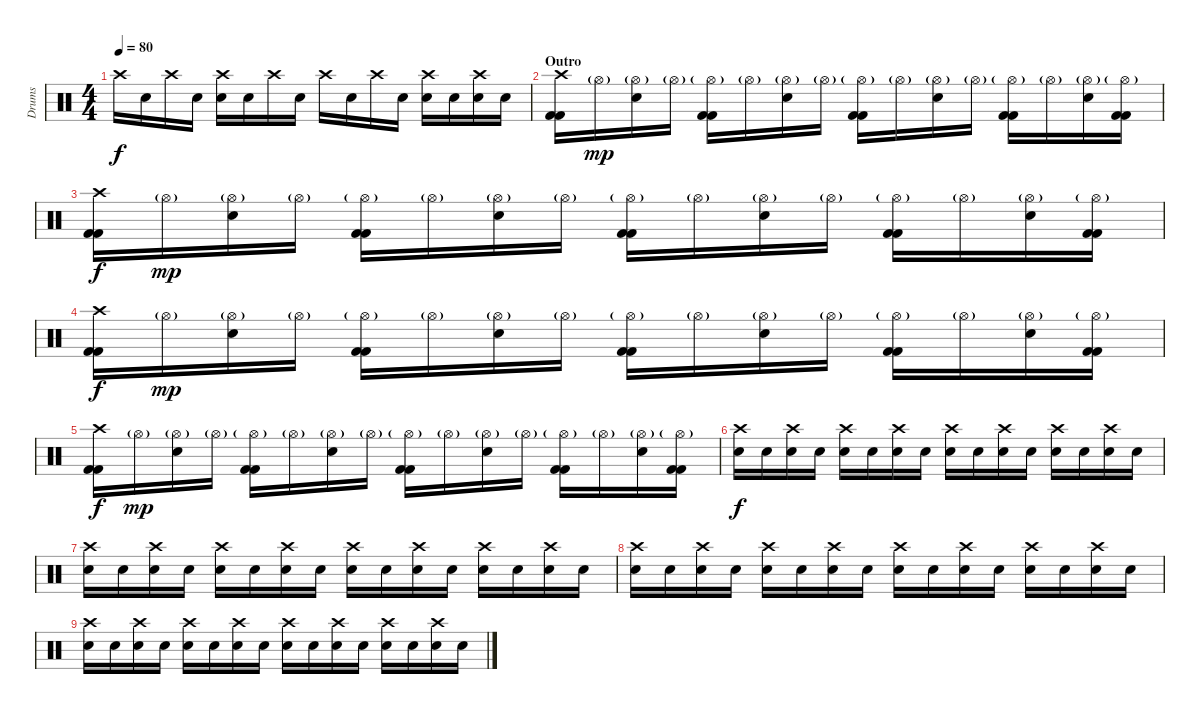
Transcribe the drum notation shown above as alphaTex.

\track ("Drums" "Drums") {instrument percussion}
\staff {score}
\articulation defaults
\ts (4 4)
\tempo 80
\clef neutral
\ks c "Crash high (hit)".16{dy f} "Snare (hit)"{x}.16 "Crash high (hit)".16 "Snare (hit)"{x}.16
("Crash high (hit)" "Electric Snare (hit)").16 "Snare (hit)"{x}.16 "Crash high (hit)".16 "Snare (hit)"{x}.16 "Crash high (hit)".16 "Snare (hit)"{x}.16 "Crash high (hit)".16 "Snare (hit)"{x}.16 ("Crash high (hit)" "Electric Snare (hit)").16 "Snare (hit)"{x}.16 ("Crash high (hit)" "Electric Snare (hit)").16 "Snare (hit)"{x}.16 |
\section ("" "Outro")
("Crash high (hit)" "Kick (hit) 2" "Kick (hit) 2").16 "Hi-Hat (open)"{g}.16{dy mp} ("Hi-Hat (open)"{g} "Electric Snare (hit)").16 "Hi-Hat (open)"{g}.16 ("Hi-Hat (open)"{g} "Kick (hit) 2" "Kick (hit) 2").16 "Hi-Hat (open)"{g}.16 ("Hi-Hat (open)"{g} "Electric Snare (hit)").16 "Hi-Hat (open)"{g}.16 ("Hi-Hat (open)"{g} "Kick (hit) 2" "Kick (hit) 2").16 "Hi-Hat (open)"{g}.16 ("Hi-Hat (open)"{g} "Electric Snare (hit)").16 "Hi-Hat (open)"{g}.16 ("Hi-Hat (open)"{g} "Kick (hit) 2" "Kick (hit) 2").16 "Hi-Hat (open)"{g}.16 ("Hi-Hat (open)"{g} "Electric Snare (hit)").16 ("Hi-Hat (open)"{g} "Kick (hit) 2" "Kick (hit) 2").16 |
("Crash high (hit)" "Kick (hit) 2" "Kick (hit) 2").16{dy f} "Hi-Hat (open)"{g}.16{dy mp} ("Hi-Hat (open)"{g} "Electric Snare (hit)").16 "Hi-Hat (open)"{g}.16 ("Hi-Hat (open)"{g} "Kick (hit) 2" "Kick (hit) 2").16 "Hi-Hat (open)"{g}.16 ("Hi-Hat (open)"{g} "Electric Snare (hit)").16 "Hi-Hat (open)"{g}.16 ("Hi-Hat (open)"{g} "Kick (hit) 2" "Kick (hit) 2").16 "Hi-Hat (open)"{g}.16 ("Hi-Hat (open)"{g} "Electric Snare (hit)").16 "Hi-Hat (open)"{g}.16 ("Hi-Hat (open)"{g} "Kick (hit) 2" "Kick (hit) 2").16 "Hi-Hat (open)"{g}.16 ("Hi-Hat (open)"{g} "Electric Snare (hit)").16 ("Hi-Hat (open)"{g} "Kick (hit) 2" "Kick (hit) 2").16 |
("Crash high (hit)" "Kick (hit) 2" "Kick (hit) 2").16{dy f} "Hi-Hat (open)"{g}.16{dy mp} ("Hi-Hat (open)"{g} "Electric Snare (hit)").16 "Hi-Hat (open)"{g}.16 ("Hi-Hat (open)"{g} "Kick (hit) 2" "Kick (hit) 2").16 "Hi-Hat (open)"{g}.16 ("Hi-Hat (open)"{g} "Electric Snare (hit)").16 "Hi-Hat (open)"{g}.16 ("Hi-Hat (open)"{g} "Kick (hit) 2" "Kick (hit) 2").16 "Hi-Hat (open)"{g}.16 ("Hi-Hat (open)"{g} "Electric Snare (hit)").16 "Hi-Hat (open)"{g}.16 ("Hi-Hat (open)"{g} "Kick (hit) 2" "Kick (hit) 2").16 "Hi-Hat (open)"{g}.16 ("Hi-Hat (open)"{g} "Electric Snare (hit)").16 ("Hi-Hat (open)"{g} "Kick (hit) 2" "Kick (hit) 2").16 |
("Crash high (hit)" "Kick (hit) 2" "Kick (hit) 2").16{dy f} "Hi-Hat (open)"{g}.16{dy mp} ("Hi-Hat (open)"{g} "Electric Snare (hit)").16 "Hi-Hat (open)"{g}.16 ("Hi-Hat (open)"{g} "Kick (hit) 2" "Kick (hit) 2").16 "Hi-Hat (open)"{g}.16 ("Hi-Hat (open)"{g} "Electric Snare (hit)").16 "Hi-Hat (open)"{g}.16 ("Hi-Hat (open)"{g} "Kick (hit) 2" "Kick (hit) 2").16 "Hi-Hat (open)"{g}.16 ("Hi-Hat (open)"{g} "Electric Snare (hit)").16 "Hi-Hat (open)"{g}.16 ("Hi-Hat (open)"{g} "Kick (hit) 2" "Kick (hit) 2").16 "Hi-Hat (open)"{g}.16 ("Hi-Hat (open)"{g} "Electric Snare (hit)").16 ("Hi-Hat (open)"{g} "Kick (hit) 2" "Kick (hit) 2").16 |
("Crash high (hit)" "Electric Snare (hit)").16{dy f} "Snare (hit)"{x}.16 ("Crash high (hit)" "Electric Snare (hit)").16 "Snare (hit)"{x}.16 ("Crash high (hit)" "Electric Snare (hit)").16 "Snare (hit)"{x}.16 ("Crash high (hit)" "Electric Snare (hit)").16 "Snare (hit)"{x}.16 ("Crash high (hit)" "Electric Snare (hit)").16 "Snare (hit)"{x}.16 ("Crash high (hit)" "Electric Snare (hit)").16 "Snare (hit)"{x}.16 ("Crash high (hit)" "Electric Snare (hit)").16 "Snare (hit)"{x}.16 ("Crash high (hit)" "Electric Snare (hit)").16 "Snare (hit)"{x}.16 |
("Crash high (hit)" "Electric Snare (hit)").16 "Snare (hit)"{x}.16 ("Crash high (hit)" "Electric Snare (hit)").16 "Snare (hit)"{x}.16 ("Crash high (hit)" "Electric Snare (hit)").16 "Snare (hit)"{x}.16 ("Crash high (hit)" "Electric Snare (hit)").16 "Snare (hit)"{x}.16 ("Crash high (hit)" "Electric Snare (hit)").16 "Snare (hit)"{x}.16 ("Crash high (hit)" "Electric Snare (hit)").16 "Snare (hit)"{x}.16 ("Crash high (hit)" "Electric Snare (hit)").16 "Snare (hit)"{x}.16 ("Crash high (hit)" "Electric Snare (hit)").16 "Snare (hit)"{x}.16 |
("Crash high (hit)" "Electric Snare (hit)").16 "Snare (hit)"{x}.16 ("Crash high (hit)" "Electric Snare (hit)").16 "Snare (hit)"{x}.16 ("Crash high (hit)" "Electric Snare (hit)").16 "Snare (hit)"{x}.16 ("Crash high (hit)" "Electric Snare (hit)").16 "Snare (hit)"{x}.16 ("Crash high (hit)" "Electric Snare (hit)").16 "Snare (hit)"{x}.16 ("Crash high (hit)" "Electric Snare (hit)").16 "Snare (hit)"{x}.16 ("Crash high (hit)" "Electric Snare (hit)").16 "Snare (hit)"{x}.16 ("Crash high (hit)" "Electric Snare (hit)").16 "Snare (hit)"{x}.16 |
("Crash high (hit)" "Electric Snare (hit)").16 "Snare (hit)"{x}.16 ("Crash high (hit)" "Electric Snare (hit)").16 "Snare (hit)"{x}.16 ("Crash high (hit)" "Electric Snare (hit)").16 "Snare (hit)"{x}.16 ("Crash high (hit)" "Electric Snare (hit)").16 "Snare (hit)"{x}.16 ("Crash high (hit)" "Electric Snare (hit)").16 "Snare (hit)"{x}.16 ("Crash high (hit)" "Electric Snare (hit)").16 "Snare (hit)"{x}.16 ("Crash high (hit)" "Electric Snare (hit)").16 "Snare (hit)"{x}.16 ("Crash high (hit)" "Electric Snare (hit)").16 "Snare (hit)"{x}.16
